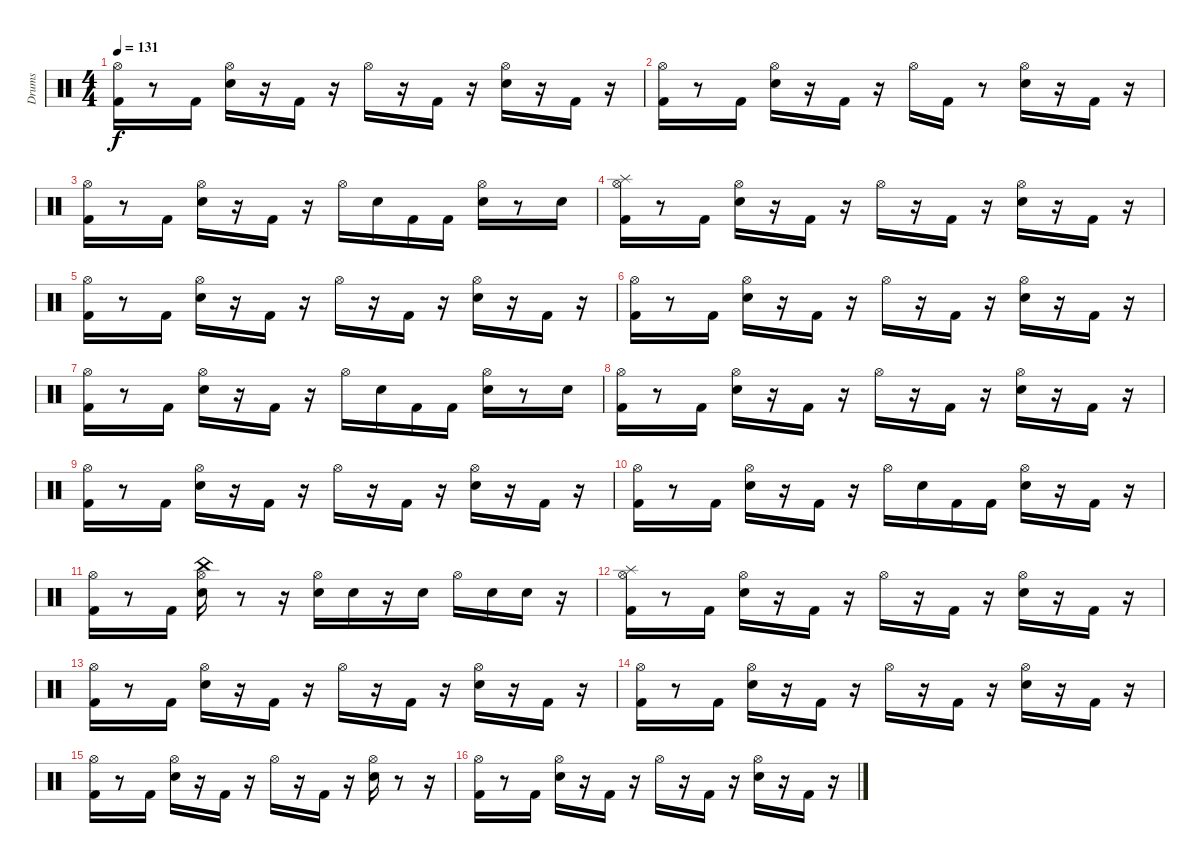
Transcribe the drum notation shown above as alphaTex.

\track ("Drums" "Drums") {instrument percussion}
\staff {score}
\articulation defaults
\ts (4 4)
\tempo 131
\clef neutral
\ks c
("Hi-Hat (open)" "Kick (hit) 2").16{dy f} r.8 "Kick (hit) 2".16 ("Hi-Hat (open)" "Snare (hit) 2").16 r.16 "Kick (hit) 2".16 r.16 "Hi-Hat (open)".16 r.16 "Kick (hit) 2".16 r.16 ("Hi-Hat (open)" "Snare (hit) 2").16 r.16 "Kick (hit) 2".16 r.16 |
("Hi-Hat (open)" "Kick (hit) 2").16 r.8 "Kick (hit) 2".16 ("Hi-Hat (open)" "Snare (hit) 2").16 r.16 "Kick (hit) 2".16 r.16 "Hi-Hat (open)".16 "Kick (hit) 2".16 r.8 ("Hi-Hat (open)" "Snare (hit) 2").16 r.16 "Kick (hit) 2".16 r.16 |
("Hi-Hat (open)" "Kick (hit) 2").16 r.8 "Kick (hit) 2".16 ("Hi-Hat (open)" "Snare (hit) 2").16 r.16 "Kick (hit) 2".16 r.16 "Hi-Hat (open)".16 "Snare (hit) 2".16 "Kick (hit) 2".16 "Kick (hit) 2".16 ("Hi-Hat (open)" "Snare (hit) 2").16 r.8 "Snare (hit) 2".16 |
("Splash (hit)" "Hi-Hat (open)" "Kick (hit) 2").16 r.8 "Kick (hit) 2".16 ("Hi-Hat (open)" "Snare (hit) 2").16 r.16 "Kick (hit) 2".16 r.16 "Hi-Hat (open)".16 r.16 "Kick (hit) 2".16 r.16 ("Hi-Hat (open)" "Snare (hit) 2").16 r.16 "Kick (hit) 2".16 r.16 |
("Hi-Hat (open)" "Kick (hit) 2").16 r.8 "Kick (hit) 2".16 ("Hi-Hat (open)" "Snare (hit) 2").16 r.16 "Kick (hit) 2".16 r.16 "Hi-Hat (open)".16 r.16 "Kick (hit) 2".16 r.16 ("Hi-Hat (open)" "Snare (hit) 2").16 r.16 "Kick (hit) 2".16 r.16 |
("Hi-Hat (open)" "Kick (hit) 2").16 r.8 "Kick (hit) 2".16 ("Hi-Hat (open)" "Snare (hit) 2").16 r.16 "Kick (hit) 2".16 r.16 "Hi-Hat (open)".16 r.16 "Kick (hit) 2".16 r.16 ("Hi-Hat (open)" "Snare (hit) 2").16 r.16 "Kick (hit) 2".16 r.16 |
("Hi-Hat (open)" "Kick (hit) 2").16 r.8 "Kick (hit) 2".16 ("Hi-Hat (open)" "Snare (hit) 2").16 r.16 "Kick (hit) 2".16 r.16 "Hi-Hat (open)".16 "Snare (hit) 2".16 "Kick (hit) 2".16 "Kick (hit) 2".16 ("Hi-Hat (open)" "Snare (hit) 2").16 r.8 "Snare (hit) 2".16 |
("Hi-Hat (open)" "Kick (hit) 2").16 r.8 "Kick (hit) 2".16 ("Hi-Hat (open)" "Snare (hit) 2").16 r.16 "Kick (hit) 2".16 r.16 "Hi-Hat (open)".16 r.16 "Kick (hit) 2".16 r.16 ("Hi-Hat (open)" "Snare (hit) 2").16 r.16 "Kick (hit) 2".16 r.16 |
("Hi-Hat (open)" "Kick (hit) 2").16 r.8 "Kick (hit) 2".16 ("Hi-Hat (open)" "Snare (hit) 2").16 r.16 "Kick (hit) 2".16 r.16 "Hi-Hat (open)".16 r.16 "Kick (hit) 2".16 r.16 ("Hi-Hat (open)" "Snare (hit) 2").16 r.16 "Kick (hit) 2".16 r.16 |
("Hi-Hat (open)" "Kick (hit) 2").16 r.8 "Kick (hit) 2".16 ("Hi-Hat (open)" "Snare (hit) 2").16 r.16 "Kick (hit) 2".16 r.16 "Hi-Hat (open)".16 "Snare (hit) 2".16 "Kick (hit) 2".16 "Kick (hit) 2".16 ("Hi-Hat (open)" "Snare (hit) 2").16 r.16 "Kick (hit) 2".16 r.16 |
("Hi-Hat (open)" "Kick (hit) 2").16 r.8 "Kick (hit) 2".16 ("Hi-Hat (open)" "China (hit)" "Snare (hit) 2").16 r.8 r.16 ("Hi-Hat (open)" "Snare (hit) 2").16 "Snare (hit) 2".16 r.16 "Snare (hit) 2".16 "Hi-Hat (open)".16 "Snare (hit) 2".16 "Snare (hit) 2".16 r.16 |
("Splash (hit)" "Hi-Hat (open)" "Kick (hit) 2").16 r.8 "Kick (hit) 2".16 ("Hi-Hat (open)" "Snare (hit) 2").16 r.16 "Kick (hit) 2".16 r.16 "Hi-Hat (open)".16 r.16 "Kick (hit) 2".16 r.16 ("Hi-Hat (open)" "Snare (hit) 2").16 r.16 "Kick (hit) 2".16 r.16 |
("Hi-Hat (open)" "Kick (hit) 2").16 r.8 "Kick (hit) 2".16 ("Hi-Hat (open)" "Snare (hit) 2").16 r.16 "Kick (hit) 2".16 r.16 "Hi-Hat (open)".16 r.16 "Kick (hit) 2".16 r.16 ("Hi-Hat (open)" "Snare (hit) 2").16 r.16 "Kick (hit) 2".16 r.16 |
("Hi-Hat (open)" "Kick (hit) 2").16 r.8 "Kick (hit) 2".16 ("Hi-Hat (open)" "Snare (hit) 2").16 r.16 "Kick (hit) 2".16 r.16 "Hi-Hat (open)".16 r.16 "Kick (hit) 2".16 r.16 ("Hi-Hat (open)" "Snare (hit) 2").16 r.16 "Kick (hit) 2".16 r.16 |
("Hi-Hat (open)" "Kick (hit) 2").16 r.8 "Kick (hit) 2".16 ("Hi-Hat (open)" "Snare (hit) 2").16 r.16 "Kick (hit) 2".16 r.16 "Hi-Hat (open)".16 r.16 "Kick (hit) 2".16 r.16 ("Hi-Hat (open)" "Snare (hit) 2").16 r.8 r.16 |
("Hi-Hat (open)" "Kick (hit) 2").16 r.8 "Kick (hit) 2".16 ("Hi-Hat (open)" "Snare (hit) 2").16 r.16 "Kick (hit) 2".16 r.16 "Hi-Hat (open)".16 r.16 "Kick (hit) 2".16 r.16 ("Hi-Hat (open)" "Snare (hit) 2").16 r.16 "Kick (hit) 2".16 r.16
